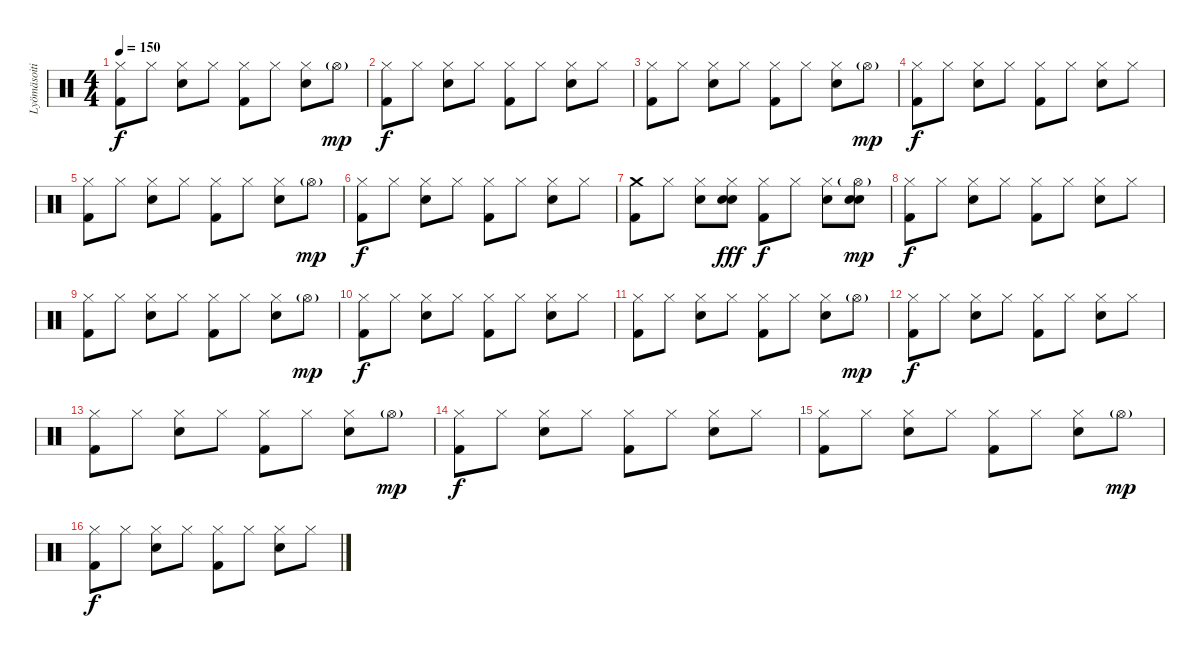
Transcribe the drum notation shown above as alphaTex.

\track ("Lyömäsoitin" "Lyömäsoiti") {instrument percussion}
\staff {score}
\articulation defaults
\ts (4 4)
\tempo 150
\clef neutral
\ks c
("Kick (hit) 2" "Hi-Hat (closed)").8{dy f} "Hi-Hat (closed)".8 ("Snare (hit) 2" "Hi-Hat (closed)").8 "Hi-Hat (closed)".8 ("Kick (hit) 2" "Hi-Hat (closed)").8 "Hi-Hat (closed)".8 ("Snare (hit) 2" "Hi-Hat (closed)").8 "Hi-Hat (open)"{g}.8{dy mp} |
("Kick (hit) 2" "Hi-Hat (closed)").8{dy f} "Hi-Hat (closed)".8 ("Snare (hit) 2" "Hi-Hat (closed)").8 "Hi-Hat (closed)".8 ("Kick (hit) 2" "Hi-Hat (closed)").8 "Hi-Hat (closed)".8 ("Snare (hit) 2" "Hi-Hat (closed)").8 "Hi-Hat (closed)".8 |
("Kick (hit) 2" "Hi-Hat (closed)").8 "Hi-Hat (closed)".8 ("Snare (hit) 2" "Hi-Hat (closed)").8 "Hi-Hat (closed)".8 ("Kick (hit) 2" "Hi-Hat (closed)").8 "Hi-Hat (closed)".8 ("Snare (hit) 2" "Hi-Hat (closed)").8 "Hi-Hat (open)"{g}.8{dy mp} |
("Kick (hit) 2" "Hi-Hat (closed)").8{dy f} "Hi-Hat (closed)".8 ("Snare (hit) 2" "Hi-Hat (closed)").8 "Hi-Hat (closed)".8 ("Kick (hit) 2" "Hi-Hat (closed)").8 "Hi-Hat (closed)".8 ("Snare (hit) 2" "Hi-Hat (closed)").8 "Hi-Hat (closed)".8 |
("Kick (hit) 2" "Hi-Hat (closed)").8 "Hi-Hat (closed)".8 ("Snare (hit) 2" "Hi-Hat (closed)").8 "Hi-Hat (closed)".8 ("Kick (hit) 2" "Hi-Hat (closed)").8 "Hi-Hat (closed)".8 ("Snare (hit) 2" "Hi-Hat (closed)").8 "Hi-Hat (open)"{g}.8{dy mp} |
("Kick (hit) 2" "Hi-Hat (closed)").8{dy f} "Hi-Hat (closed)".8 ("Snare (hit) 2" "Hi-Hat (closed)").8 "Hi-Hat (closed)".8 ("Kick (hit) 2" "Hi-Hat (closed)").8 "Hi-Hat (closed)".8 ("Snare (hit) 2" "Hi-Hat (closed)").8 "Hi-Hat (closed)".8 |
("Kick (hit) 2" "Crash medium (hit)").8 "Hi-Hat (closed)".8 ("Snare (hit) 2" "Hi-Hat (closed)").8 ("Electric Snare (hit)" "Hand Clap (hit)" "Hi-Hat (closed)").8{dy fff} ("Kick (hit) 2" "Hi-Hat (closed)").8{dy f} "Hi-Hat (closed)".8 ("Snare (hit) 2" "Hi-Hat (closed)").8 ("Electric Snare (hit)" "Hand Clap (hit)" "Hi-Hat (open)"{g}).8{dy mp} |
("Kick (hit) 2" "Hi-Hat (closed)").8{dy f} "Hi-Hat (closed)".8 ("Snare (hit) 2" "Hi-Hat (closed)").8 "Hi-Hat (closed)".8 ("Kick (hit) 2" "Hi-Hat (closed)").8 "Hi-Hat (closed)".8 ("Snare (hit) 2" "Hi-Hat (closed)").8 "Hi-Hat (closed)".8 |
("Kick (hit) 2" "Hi-Hat (closed)").8 "Hi-Hat (closed)".8 ("Snare (hit) 2" "Hi-Hat (closed)").8 "Hi-Hat (closed)".8 ("Kick (hit) 2" "Hi-Hat (closed)").8 "Hi-Hat (closed)".8 ("Snare (hit) 2" "Hi-Hat (closed)").8 "Hi-Hat (open)"{g}.8{dy mp} |
("Kick (hit) 2" "Hi-Hat (closed)").8{dy f} "Hi-Hat (closed)".8 ("Snare (hit) 2" "Hi-Hat (closed)").8 "Hi-Hat (closed)".8 ("Kick (hit) 2" "Hi-Hat (closed)").8 "Hi-Hat (closed)".8 ("Snare (hit) 2" "Hi-Hat (closed)").8 "Hi-Hat (closed)".8 |
("Kick (hit) 2" "Hi-Hat (closed)").8 "Hi-Hat (closed)".8 ("Snare (hit) 2" "Hi-Hat (closed)").8 "Hi-Hat (closed)".8 ("Kick (hit) 2" "Hi-Hat (closed)").8 "Hi-Hat (closed)".8 ("Snare (hit) 2" "Hi-Hat (closed)").8 "Hi-Hat (open)"{g}.8{dy mp} |
("Kick (hit) 2" "Hi-Hat (closed)").8{dy f} "Hi-Hat (closed)".8 ("Snare (hit) 2" "Hi-Hat (closed)").8 "Hi-Hat (closed)".8 ("Kick (hit) 2" "Hi-Hat (closed)").8 "Hi-Hat (closed)".8 ("Snare (hit) 2" "Hi-Hat (closed)").8 "Hi-Hat (closed)".8 |
("Kick (hit) 2" "Hi-Hat (closed)").8 "Hi-Hat (closed)".8 ("Snare (hit) 2" "Hi-Hat (closed)").8 "Hi-Hat (closed)".8 ("Kick (hit) 2" "Hi-Hat (closed)").8 "Hi-Hat (closed)".8 ("Snare (hit) 2" "Hi-Hat (closed)").8 "Hi-Hat (open)"{g}.8{dy mp} |
("Kick (hit) 2" "Hi-Hat (closed)").8{dy f} "Hi-Hat (closed)".8 ("Snare (hit) 2" "Hi-Hat (closed)").8 "Hi-Hat (closed)".8 ("Kick (hit) 2" "Hi-Hat (closed)").8 "Hi-Hat (closed)".8 ("Snare (hit) 2" "Hi-Hat (closed)").8 "Hi-Hat (closed)".8 |
("Kick (hit) 2" "Hi-Hat (closed)").8 "Hi-Hat (closed)".8 ("Snare (hit) 2" "Hi-Hat (closed)").8 "Hi-Hat (closed)".8 ("Kick (hit) 2" "Hi-Hat (closed)").8 "Hi-Hat (closed)".8 ("Snare (hit) 2" "Hi-Hat (closed)").8 "Hi-Hat (open)"{g}.8{dy mp} |
("Kick (hit) 2" "Hi-Hat (closed)").8{dy f} "Hi-Hat (closed)".8 ("Snare (hit) 2" "Hi-Hat (closed)").8 "Hi-Hat (closed)".8 ("Kick (hit) 2" "Hi-Hat (closed)").8 "Hi-Hat (closed)".8 ("Snare (hit) 2" "Hi-Hat (closed)").8 "Hi-Hat (closed)".8
